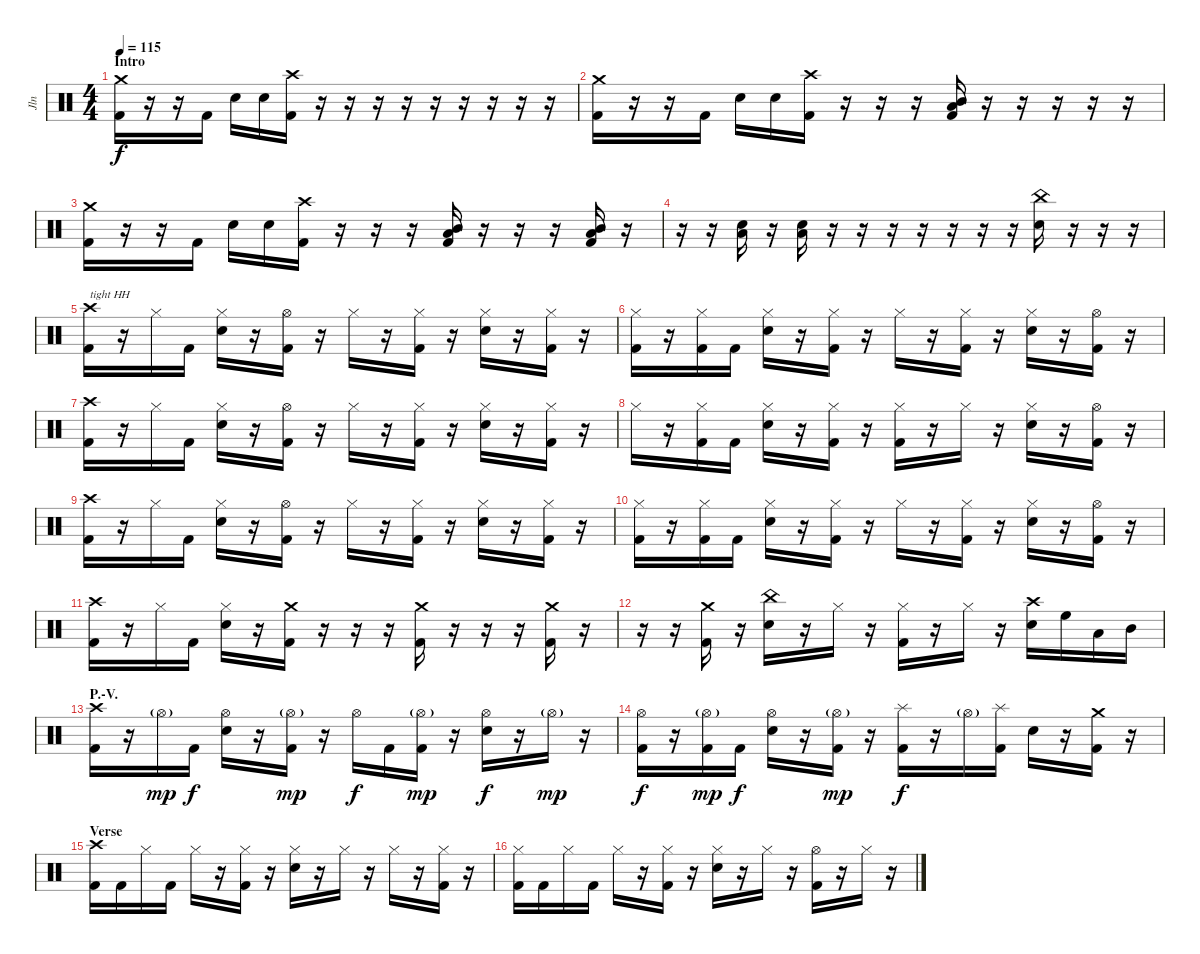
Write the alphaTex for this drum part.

\track ("Jln" "Jln") {instrument percussion}
\staff {score}
\articulation defaults
\ts (4 4)
\section ("" "Intro")
\tempo 115
\clef neutral
\ks c
("Crash medium (hit)" "Kick (hit) 2").16{dy f} r.16 r.16 "Kick (hit) 2".16 "Electric Snare (hit)".16 "Electric Snare (hit)".16 ("Crash high (hit)" "Kick (hit) 2").16 r.16 r.16 r.16 r.16 r.16 r.16 r.16 r.16 r.16 |
("Crash medium (hit)" "Kick (hit) 2").16 r.16 r.16 "Kick (hit) 2".16 "Electric Snare (hit)".16 "Electric Snare (hit)".16 ("Crash high (hit)" "Kick (hit) 2").16 r.16 r.16 r.16 ("Mid Tom (hit)" "Low Tom (hit)" "Kick (hit) 2").16 r.16 r.16 r.16 r.16 r.16 |
("Crash medium (hit)" "Kick (hit) 2").16 r.16 r.16 "Kick (hit) 2".16 "Electric Snare (hit)".16 "Electric Snare (hit)".16 ("Crash high (hit)" "Kick (hit) 2").16 r.16 r.16 r.16 ("Mid Tom (hit)" "Low Tom (hit)" "Kick (hit) 2").16 r.16 r.16 r.16 ("Mid Tom (hit)" "Low Tom (hit)" "Kick (hit) 2").16 r.16 |
r.16 r.16 ("Electric Snare (hit)" "Low Tom (hit)").16 r.16 ("Electric Snare (hit)" "Low Tom (hit)").16 r.16 r.16 r.16 r.16 r.16 r.16 r.16 ("China (hit)" "Electric Snare (hit)").16 r.16 r.16 r.16 |
("Crash high (hit)" "Kick (hit) 2").16{txt "tight HH"} r.16 "Hi-Hat (closed)".16 "Kick (hit) 2".16 ("Hi-Hat (closed)" "Electric Snare (hit)").16 r.16 ("Hi-Hat (open)" "Kick (hit) 2").16 r.16 "Hi-Hat (closed)".16 r.16 ("Hi-Hat (closed)" "Kick (hit) 2").16 r.16 ("Hi-Hat (closed)" "Electric Snare (hit)").16 r.16 ("Hi-Hat (closed)" "Kick (hit) 2").16 r.16 |
("Hi-Hat (closed)" "Kick (hit) 2").16 r.16 ("Hi-Hat (closed)" "Kick (hit) 2").16 "Kick (hit) 2".16 ("Hi-Hat (closed)" "Electric Snare (hit)").16 r.16 ("Hi-Hat (closed)" "Kick (hit) 2").16 r.16 "Hi-Hat (closed)".16 r.16 ("Hi-Hat (closed)" "Kick (hit) 2").16 r.16 ("Hi-Hat (closed)" "Electric Snare (hit)").16 r.16 ("Hi-Hat (open)" "Kick (hit) 2").16 r.16 |
("Crash high (hit)" "Kick (hit) 2").16 r.16 "Hi-Hat (closed)".16 "Kick (hit) 2".16 ("Hi-Hat (closed)" "Electric Snare (hit)").16 r.16 ("Hi-Hat (open)" "Kick (hit) 2").16 r.16 "Hi-Hat (closed)".16 r.16 ("Hi-Hat (closed)" "Kick (hit) 2").16 r.16 ("Hi-Hat (closed)" "Electric Snare (hit)").16 r.16 ("Hi-Hat (closed)" "Kick (hit) 2").16 r.16 |
"Hi-Hat (closed)".16 r.16 ("Hi-Hat (closed)" "Kick (hit) 2").16 "Kick (hit) 2".16 ("Hi-Hat (closed)" "Electric Snare (hit)").16 r.16 ("Hi-Hat (closed)" "Kick (hit) 2").16 r.16 ("Hi-Hat (closed)" "Kick (hit) 2").16 r.16 "Hi-Hat (closed)".16 r.16 ("Hi-Hat (closed)" "Electric Snare (hit)").16 r.16 ("Hi-Hat (open)" "Kick (hit) 2").16 r.16 |
("Crash high (hit)" "Kick (hit) 2").16 r.16 "Hi-Hat (closed)".16 "Kick (hit) 2".16 ("Hi-Hat (closed)" "Electric Snare (hit)").16 r.16 ("Hi-Hat (open)" "Kick (hit) 2").16 r.16 "Hi-Hat (closed)".16 r.16 ("Hi-Hat (closed)" "Kick (hit) 2").16 r.16 ("Hi-Hat (closed)" "Electric Snare (hit)").16 r.16 ("Hi-Hat (closed)" "Kick (hit) 2").16 r.16 |
("Hi-Hat (closed)" "Kick (hit) 2").16 r.16 ("Hi-Hat (closed)" "Kick (hit) 2").16 "Kick (hit) 2".16 ("Hi-Hat (closed)" "Electric Snare (hit)").16 r.16 ("Hi-Hat (closed)" "Kick (hit) 2").16 r.16 "Hi-Hat (closed)".16 r.16 ("Hi-Hat (closed)" "Kick (hit) 2").16 r.16 ("Hi-Hat (closed)" "Electric Snare (hit)").16 r.16 ("Hi-Hat (open)" "Kick (hit) 2").16 r.16 |
("Crash high (hit)" "Kick (hit) 2").16 r.16 "Hi-Hat (closed)".16 "Kick (hit) 2".16 ("Hi-Hat (closed)" "Electric Snare (hit)").16 r.16 ("Crash medium (hit)" "Kick (hit) 2").16 r.16 r.16 r.16 ("Crash medium (hit)" "Kick (hit) 2").16 r.16 r.16 r.16 ("Crash medium (hit)" "Kick (hit) 2").16 r.16 |
r.16 r.16 ("Crash medium (hit)" "Kick (hit) 2").16 r.16 ("China (hit)" "Electric Snare (hit)").16 r.16 "Hi-Hat (closed)".16 r.16 ("Hi-Hat (closed)" "Kick (hit) 2").16 r.16 "Hi-Hat (closed)".16 r.16 ("Crash high (hit)" "Electric Snare (hit)").16 "High Floor Tom (hit)".16 "Low Tom (hit)".16 "Mid Tom (hit)".16 |
\section ("" "P.-V.")
("Crash high (hit)" "Kick (hit) 2").16 r.16 "Hi-Hat (open)"{g}.16{dy mp} "Kick (hit) 2".16{dy f} ("Hi-Hat (open)" "Electric Snare (hit)").16 r.16 ("Hi-Hat (open)"{g} "Kick (hit) 2").16{dy mp} r.16 "Hi-Hat (open)".16{dy f} "Kick (hit) 2".16 ("Hi-Hat (open)"{g} "Kick (hit) 2").16{dy mp} r.16 ("Hi-Hat (open)" "Electric Snare (hit)").16{dy f} r.16 "Hi-Hat (open)"{g}.16{dy mp} r.16 |
("Hi-Hat (open)" "Kick (hit) 2").16{dy f} r.16 ("Hi-Hat (open)"{g} "Kick (hit) 2").16{dy mp} "Kick (hit) 2".16{dy f} ("Hi-Hat (open)" "Electric Snare (hit)").16 r.16 ("Hi-Hat (open)"{g} "Kick (hit) 2").16{dy mp} r.16 ("Splash (hit)" "Kick (hit) 2").16{dy f} r.16 "Hi-Hat (open)"{g}.16 ("Splash (hit)" "Kick (hit) 2").16 "Electric Snare (hit)".16 r.16 ("Crash medium (hit)" "Kick (hit) 2").16 r.16 |
\section ("" "Verse")
("Crash high (hit)" "Kick (hit) 2").16 "Kick (hit) 2".16 "Hi-Hat (closed)".16 "Kick (hit) 2".16 "Hi-Hat (closed)".16 r.16 ("Hi-Hat (closed)" "Kick (hit) 2").16 r.16 ("Hi-Hat (closed)" "Electric Snare (hit)").16 r.16 "Hi-Hat (closed)".16 r.16 "Hi-Hat (closed)".16 r.16 ("Hi-Hat (closed)" "Kick (hit) 2").16 r.16 |
("Hi-Hat (closed)" "Kick (hit) 2").16 "Kick (hit) 2".16 "Hi-Hat (closed)".16 "Kick (hit) 2".16 "Hi-Hat (closed)".16 r.16 ("Hi-Hat (closed)" "Kick (hit) 2").16 r.16 ("Hi-Hat (closed)" "Electric Snare (hit)").16 r.16 "Hi-Hat (closed)".16 r.16 ("Hi-Hat (open)" "Kick (hit) 2").16 r.16 "Hi-Hat (closed)".16 r.16
